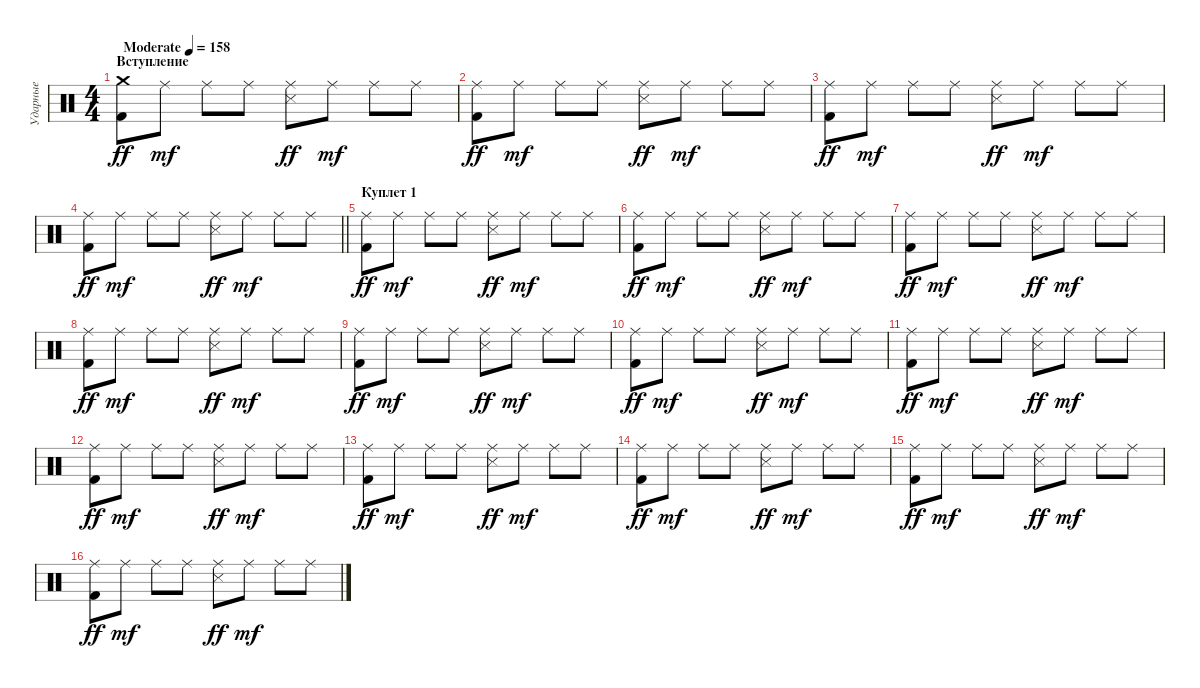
\track ("Ударные" "Ударные") {instrument percussion}
\staff {score}
\articulation defaults
\ts (4 4)
\section ("" "Вступление")
\tempo (158 "Moderate")
\clef neutral
\ks c
("Crash medium (hit)" "Kick (hit) 2").8{dy ff} "Ride (middle)".8{dy mf} "Ride (middle)".8 "Ride (middle)".8 ("Ride (middle)" "Snare (side stick) 3").8{dy ff} "Ride (middle)".8{dy mf} "Ride (middle)".8 "Ride (middle)".8 |
("Ride (middle)" "Kick (hit) 2").8{dy ff} "Ride (middle)".8{dy mf} "Ride (middle)".8 "Ride (middle)".8 ("Ride (middle)" "Snare (side stick) 3").8{dy ff} "Ride (middle)".8{dy mf} "Ride (middle)".8 "Ride (middle)".8 |
("Ride (middle)" "Kick (hit) 2").8{dy ff} "Ride (middle)".8{dy mf} "Ride (middle)".8 "Ride (middle)".8 ("Ride (middle)" "Snare (side stick) 3").8{dy ff} "Ride (middle)".8{dy mf} "Ride (middle)".8 "Ride (middle)".8 |
\barLineRight lightlight
("Ride (middle)" "Kick (hit) 2").8{dy ff} "Ride (middle)".8{dy mf} "Ride (middle)".8 "Ride (middle)".8 ("Ride (middle)" "Snare (side stick) 3").8{dy ff} "Ride (middle)".8{dy mf} "Ride (middle)".8 "Ride (middle)".8 |
\section ("" "Куплет 1")
("Ride (middle)" "Kick (hit) 2").8{dy ff} "Ride (middle)".8{dy mf} "Ride (middle)".8 "Ride (middle)".8 ("Ride (middle)" "Snare (side stick) 3").8{dy ff} "Ride (middle)".8{dy mf} "Ride (middle)".8 "Ride (middle)".8 |
("Ride (middle)" "Kick (hit) 2").8{dy ff} "Ride (middle)".8{dy mf} "Ride (middle)".8 "Ride (middle)".8 ("Ride (middle)" "Snare (side stick) 3").8{dy ff} "Ride (middle)".8{dy mf} "Ride (middle)".8 "Ride (middle)".8 |
("Ride (middle)" "Kick (hit) 2").8{dy ff} "Ride (middle)".8{dy mf} "Ride (middle)".8 "Ride (middle)".8 ("Ride (middle)" "Snare (side stick) 3").8{dy ff} "Ride (middle)".8{dy mf} "Ride (middle)".8 "Ride (middle)".8 |
("Ride (middle)" "Kick (hit) 2").8{dy ff} "Ride (middle)".8{dy mf} "Ride (middle)".8 "Ride (middle)".8 ("Ride (middle)" "Snare (side stick) 3").8{dy ff} "Ride (middle)".8{dy mf} "Ride (middle)".8 "Ride (middle)".8 |
("Ride (middle)" "Kick (hit) 2").8{dy ff} "Ride (middle)".8{dy mf} "Ride (middle)".8 "Ride (middle)".8 ("Ride (middle)" "Snare (side stick) 3").8{dy ff} "Ride (middle)".8{dy mf} "Ride (middle)".8 "Ride (middle)".8 |
("Ride (middle)" "Kick (hit) 2").8{dy ff} "Ride (middle)".8{dy mf} "Ride (middle)".8 "Ride (middle)".8 ("Ride (middle)" "Snare (side stick) 3").8{dy ff} "Ride (middle)".8{dy mf} "Ride (middle)".8 "Ride (middle)".8 |
("Ride (middle)" "Kick (hit) 2").8{dy ff} "Ride (middle)".8{dy mf} "Ride (middle)".8 "Ride (middle)".8 ("Ride (middle)" "Snare (side stick) 3").8{dy ff} "Ride (middle)".8{dy mf} "Ride (middle)".8 "Ride (middle)".8 |
("Ride (middle)" "Kick (hit) 2").8{dy ff} "Ride (middle)".8{dy mf} "Ride (middle)".8 "Ride (middle)".8 ("Ride (middle)" "Snare (side stick) 3").8{dy ff} "Ride (middle)".8{dy mf} "Ride (middle)".8 "Ride (middle)".8 |
("Ride (middle)" "Kick (hit) 2").8{dy ff} "Ride (middle)".8{dy mf} "Ride (middle)".8 "Ride (middle)".8 ("Ride (middle)" "Snare (side stick) 3").8{dy ff} "Ride (middle)".8{dy mf} "Ride (middle)".8 "Ride (middle)".8 |
("Ride (middle)" "Kick (hit) 2").8{dy ff} "Ride (middle)".8{dy mf} "Ride (middle)".8 "Ride (middle)".8 ("Ride (middle)" "Snare (side stick) 3").8{dy ff} "Ride (middle)".8{dy mf} "Ride (middle)".8 "Ride (middle)".8 |
("Ride (middle)" "Kick (hit) 2").8{dy ff} "Ride (middle)".8{dy mf} "Ride (middle)".8 "Ride (middle)".8 ("Ride (middle)" "Snare (side stick) 3").8{dy ff} "Ride (middle)".8{dy mf} "Ride (middle)".8 "Ride (middle)".8 |
("Ride (middle)" "Kick (hit) 2").8{dy ff} "Ride (middle)".8{dy mf} "Ride (middle)".8 "Ride (middle)".8 ("Ride (middle)" "Snare (side stick) 3").8{dy ff} "Ride (middle)".8{dy mf} "Ride (middle)".8 "Ride (middle)".8
